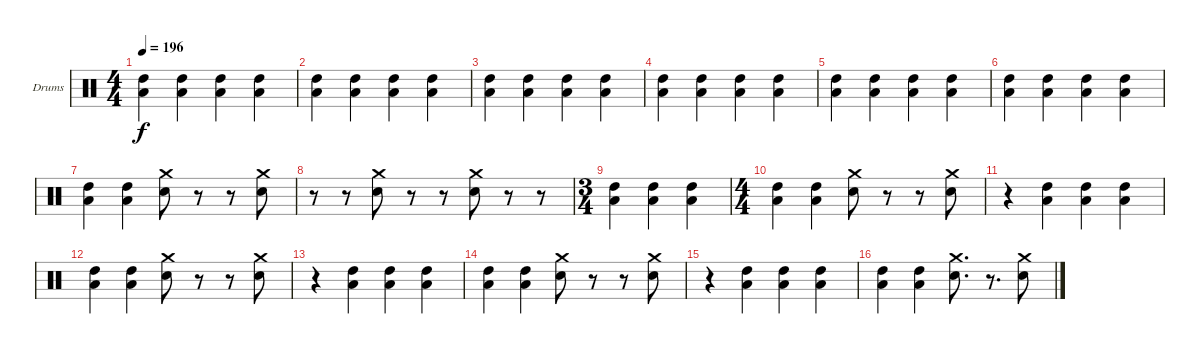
\defaultSystemsLayout 4
\bracketExtendMode groupsimilarinstruments
\firstSystemTrackNameOrientation horizontal
\otherSystemsTrackNameOrientation horizontal
\track ("Lars Ulrich (Drum)" "Drums") {instrument percussion}
\staff {score}
\articulation defaults
\ts (4 4)
\tempo 196
\clef neutral
\scale
0.333333
\ks c
("High Tom (hit)" "Low Tom (hit)").4{dy f} ("High Tom (hit)" "Low Tom (hit)").4 ("High Tom (hit)" "Low Tom (hit)").4 ("High Tom (hit)" "Low Tom (hit)").4 |
\scale
0.333333 ("High Tom (hit)" "Low Tom (hit)").4 ("High Tom (hit)" "Low Tom (hit)").4 ("High Tom (hit)" "Low Tom (hit)").4 ("High Tom (hit)" "Low Tom (hit)").4 |
\scale
0.333333 ("High Tom (hit)" "Low Tom (hit)").4 ("High Tom (hit)" "Low Tom (hit)").4 ("High Tom (hit)" "Low Tom (hit)").4 ("High Tom (hit)" "Low Tom (hit)").4 |
\scale
0.333333 ("High Tom (hit)" "Low Tom (hit)").4 ("High Tom (hit)" "Low Tom (hit)").4 ("High Tom (hit)" "Low Tom (hit)").4 ("High Tom (hit)" "Low Tom (hit)").4 |
\scale
0.333333 ("High Tom (hit)" "Low Tom (hit)").4 ("High Tom (hit)" "Low Tom (hit)").4 ("High Tom (hit)" "Low Tom (hit)").4 ("High Tom (hit)" "Low Tom (hit)").4 |
\scale
0.333333 ("High Tom (hit)" "Low Tom (hit)").4 ("High Tom (hit)" "Low Tom (hit)").4 ("High Tom (hit)" "Low Tom (hit)").4 ("High Tom (hit)" "Low Tom (hit)").4 |
\scale
0.262911 ("High Tom (hit)" "Low Tom (hit)").4 ("High Tom (hit)" "Low Tom (hit)").4 ("Crash medium (hit)" "Snare (hit) 2").8 r.8 r.8 ("Crash medium (hit)" "Snare (hit) 2").8 |
\scale
0.262911 r.8 r.8 ("Crash medium (hit)" "Snare (hit) 2").8 r.8 r.8 ("Crash medium (hit)" "Snare (hit) 2").8 r.8 r.8 |
\ts (3 4)
\scale
0.474178 ("High Tom (hit)" "Low Tom (hit)").4 ("High Tom (hit)" "Low Tom (hit)").4 ("High Tom (hit)" "Low Tom (hit)").4 |
\ts (4 4)
\scale
0.474178 ("High Tom (hit)" "Low Tom (hit)").4 ("High Tom (hit)" "Low Tom (hit)").4 ("Crash medium (hit)" "Snare (hit) 2").8 r.8 r.8 ("Crash medium (hit)" "Snare (hit) 2").8 |
\scale
0.262911 r.4 ("High Tom (hit)" "Low Tom (hit)").4 ("High Tom (hit)" "Low Tom (hit)").4 ("High Tom (hit)" "Low Tom (hit)").4 |
\scale
0.262911 ("High Tom (hit)" "Low Tom (hit)").4 ("High Tom (hit)" "Low Tom (hit)").4 ("Crash medium (hit)" "Snare (hit) 2").8 r.8 r.8 ("Crash medium (hit)" "Snare (hit) 2").8 |
\scale
0.333333 r.4 ("High Tom (hit)" "Low Tom (hit)").4 ("High Tom (hit)" "Low Tom (hit)").4 ("High Tom (hit)" "Low Tom (hit)").4 |
\scale
0.333333 ("High Tom (hit)" "Low Tom (hit)").4 ("High Tom (hit)" "Low Tom (hit)").4 ("Crash medium (hit)" "Snare (hit) 2").8 r.8 r.8 ("Crash medium (hit)" "Snare (hit) 2").8 |
\scale
0.333333 r.4 ("High Tom (hit)" "Low Tom (hit)").4 ("High Tom (hit)" "Low Tom (hit)").4 ("High Tom (hit)" "Low Tom (hit)").4 |
\scale
0.262911 ("High Tom (hit)" "Low Tom (hit)").4 ("High Tom (hit)" "Low Tom (hit)").4 ("Crash medium (hit)" "Snare (hit) 2").8{d} r.8{d} ("Crash medium (hit)" "Snare (hit) 2").8
